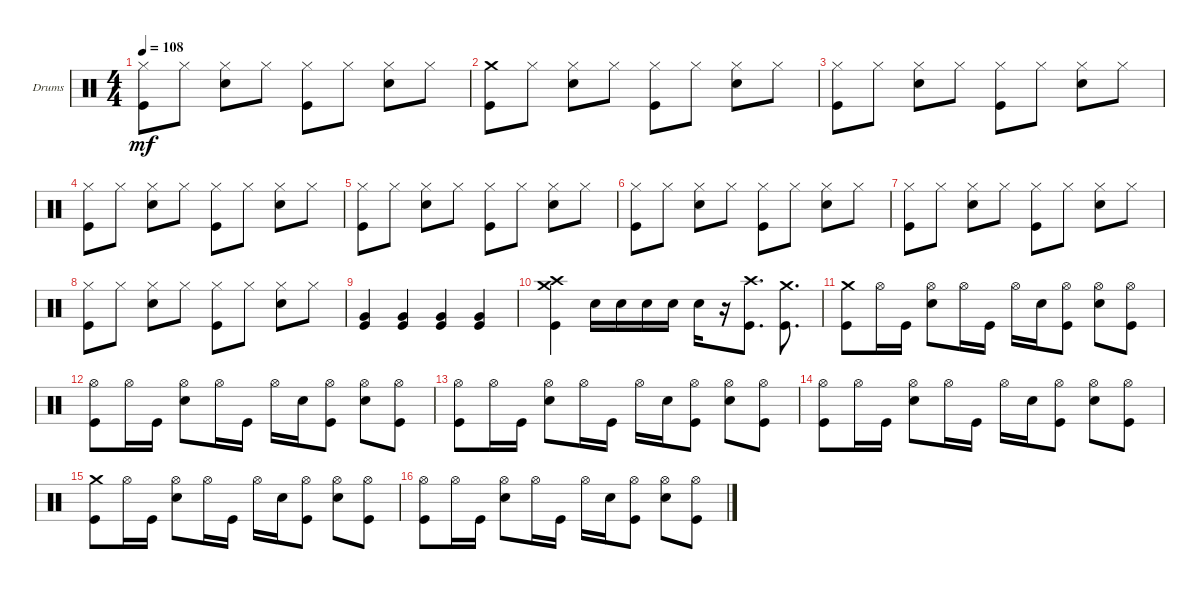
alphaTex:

\defaultSystemsLayout 4
\bracketExtendMode groupsimilarinstruments
\firstSystemTrackNameOrientation horizontal
\otherSystemsTrackNameOrientation horizontal
\track ("Drumkit" "Drums") {instrument percussion}
\staff {score}
\articulation defaults
\ts (4 4)
\tempo 108
\clef neutral
\ks c
("Hi-Hat (closed)" "Kick (hit)").8{dy mf} "Hi-Hat (closed)".8 ("Hi-Hat (closed)" "Snare (hit) 2").8 "Hi-Hat (closed)".8 ("Hi-Hat (closed)" "Kick (hit)").8 "Hi-Hat (closed)".8 ("Hi-Hat (closed)" "Snare (hit) 2").8 "Hi-Hat (closed)".8 |
("Kick (hit)" "Crash medium (hit)").8 "Hi-Hat (closed)".8 ("Hi-Hat (closed)" "Snare (hit) 2").8 "Hi-Hat (closed)".8 ("Hi-Hat (closed)" "Kick (hit)").8 "Hi-Hat (closed)".8 ("Hi-Hat (closed)" "Snare (hit) 2").8 "Hi-Hat (closed)".8 |
("Hi-Hat (closed)" "Kick (hit)").8 "Hi-Hat (closed)".8 ("Hi-Hat (closed)" "Snare (hit) 2").8 "Hi-Hat (closed)".8 ("Hi-Hat (closed)" "Kick (hit)").8 "Hi-Hat (closed)".8 ("Hi-Hat (closed)" "Snare (hit) 2").8 "Hi-Hat (closed)".8 |
("Hi-Hat (closed)" "Kick (hit)").8 "Hi-Hat (closed)".8 ("Hi-Hat (closed)" "Snare (hit) 2").8 "Hi-Hat (closed)".8 ("Hi-Hat (closed)" "Kick (hit)").8 "Hi-Hat (closed)".8 ("Hi-Hat (closed)" "Snare (hit) 2").8 "Hi-Hat (closed)".8 |
("Hi-Hat (closed)" "Kick (hit)").8 "Hi-Hat (closed)".8 ("Hi-Hat (closed)" "Snare (hit) 2").8 "Hi-Hat (closed)".8 ("Hi-Hat (closed)" "Kick (hit)").8 "Hi-Hat (closed)".8 ("Hi-Hat (closed)" "Snare (hit) 2").8 "Hi-Hat (closed)".8 |
("Hi-Hat (closed)" "Kick (hit)").8 "Hi-Hat (closed)".8 ("Hi-Hat (closed)" "Snare (hit) 2").8 "Hi-Hat (closed)".8 ("Hi-Hat (closed)" "Kick (hit)").8 "Hi-Hat (closed)".8 ("Hi-Hat (closed)" "Snare (hit) 2").8 "Hi-Hat (closed)".8 |
("Hi-Hat (closed)" "Kick (hit)").8 "Hi-Hat (closed)".8 ("Hi-Hat (closed)" "Snare (hit) 2").8 "Hi-Hat (closed)".8 ("Hi-Hat (closed)" "Kick (hit)").8 "Hi-Hat (closed)".8 ("Hi-Hat (closed)" "Snare (hit) 2").8 "Hi-Hat (closed)".8 |
("Hi-Hat (closed)" "Kick (hit)").8 "Hi-Hat (closed)".8 ("Hi-Hat (closed)" "Snare (hit) 2").8 "Hi-Hat (closed)".8 ("Hi-Hat (closed)" "Kick (hit)").8 "Hi-Hat (closed)".8 ("Hi-Hat (closed)" "Snare (hit) 2").8 "Hi-Hat (closed)".8 |
("Kick (hit)" "Very Low Tom (hit)").4 ("Kick (hit)" "Very Low Tom (hit)").4 ("Kick (hit)" "Very Low Tom (hit)").4 ("Kick (hit)" "Very Low Tom (hit)").4 |
("Kick (hit)" "Crash medium (hit)" "Crash high (hit)").4 "Snare (hit) 2".16 "Snare (hit) 2".16 "Snare (hit) 2".16 "Snare (hit) 2".16 "Snare (hit) 2".16 r.16 ("Kick (hit)" "Crash high (hit)").8{d} ("Kick (hit)" "Crash medium (hit)").8{d} |
("Kick (hit)" "Crash medium (hit)").8 "Hi-Hat (open)".16 "Kick (hit)".16 ("Snare (hit) 2" "Hi-Hat (open)").8 "Hi-Hat (open)".16 "Kick (hit)".16 "Hi-Hat (open)".16 "Snare (hit) 2".16 ("Kick (hit)" "Hi-Hat (open)").8 ("Snare (hit) 2" "Hi-Hat (open)").8 ("Kick (hit)" "Hi-Hat (open)").8 |
("Kick (hit)" "Hi-Hat (open)").8 "Hi-Hat (open)".16 "Kick (hit)".16 ("Snare (hit) 2" "Hi-Hat (open)").8 "Hi-Hat (open)".16 "Kick (hit)".16 "Hi-Hat (open)".16 "Snare (hit) 2".16 ("Kick (hit)" "Hi-Hat (open)").8 ("Snare (hit) 2" "Hi-Hat (open)").8 ("Kick (hit)" "Hi-Hat (open)").8 |
("Kick (hit)" "Hi-Hat (open)").8 "Hi-Hat (open)".16 "Kick (hit)".16 ("Snare (hit) 2" "Hi-Hat (open)").8 "Hi-Hat (open)".16 "Kick (hit)".16 "Hi-Hat (open)".16 "Snare (hit) 2".16 ("Kick (hit)" "Hi-Hat (open)").8 ("Snare (hit) 2" "Hi-Hat (open)").8 ("Kick (hit)" "Hi-Hat (open)").8 |
("Kick (hit)" "Hi-Hat (open)").8 "Hi-Hat (open)".16 "Kick (hit)".16 ("Snare (hit) 2" "Hi-Hat (open)").8 "Hi-Hat (open)".16 "Kick (hit)".16 "Hi-Hat (open)".16 "Snare (hit) 2".16 ("Kick (hit)" "Hi-Hat (open)").8 ("Snare (hit) 2" "Hi-Hat (open)").8 ("Kick (hit)" "Hi-Hat (open)").8 |
("Kick (hit)" "Crash medium (hit)").8 "Hi-Hat (open)".16 "Kick (hit)".16 ("Snare (hit) 2" "Hi-Hat (open)").8 "Hi-Hat (open)".16 "Kick (hit)".16 "Hi-Hat (open)".16 "Snare (hit) 2".16 ("Kick (hit)" "Hi-Hat (open)").8 ("Snare (hit) 2" "Hi-Hat (open)").8 ("Kick (hit)" "Hi-Hat (open)").8 |
("Kick (hit)" "Hi-Hat (open)").8 "Hi-Hat (open)".16 "Kick (hit)".16 ("Snare (hit) 2" "Hi-Hat (open)").8 "Hi-Hat (open)".16 "Kick (hit)".16 "Hi-Hat (open)".16 "Snare (hit) 2".16 ("Kick (hit)" "Hi-Hat (open)").8 ("Snare (hit) 2" "Hi-Hat (open)").8 ("Kick (hit)" "Hi-Hat (open)").8
